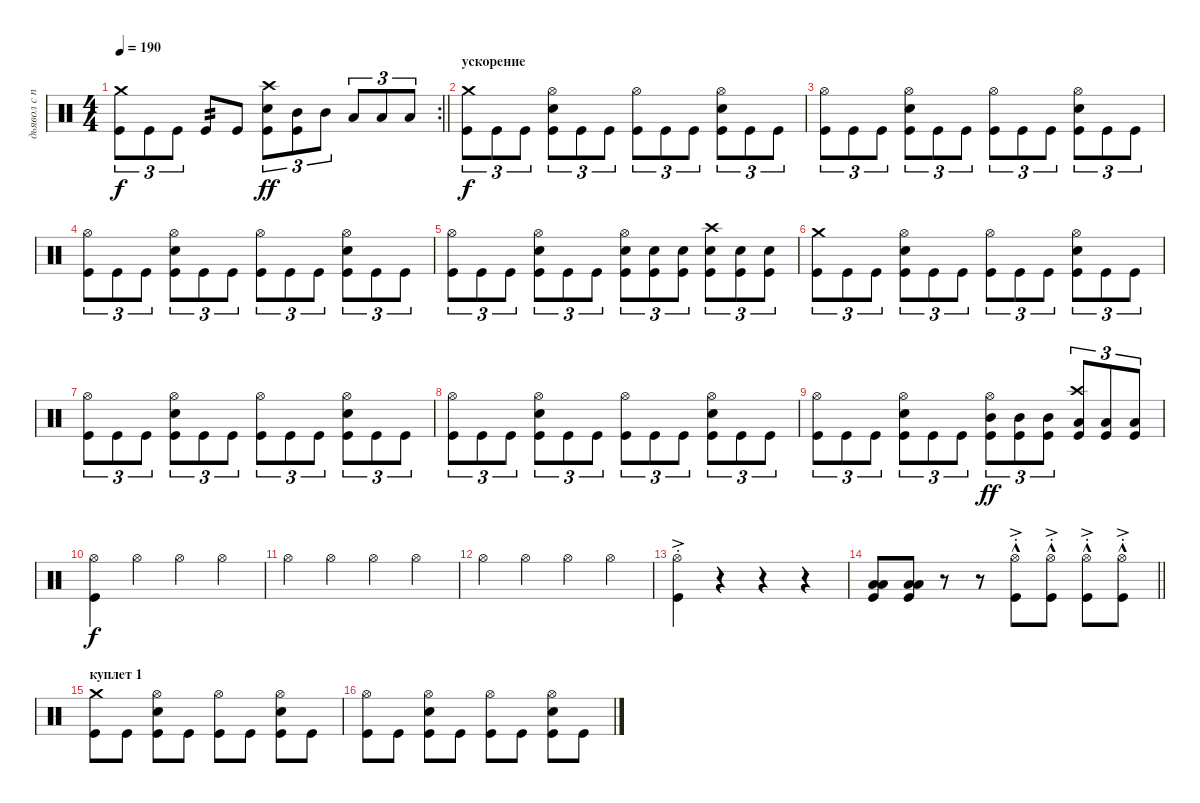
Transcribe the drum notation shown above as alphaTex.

\track ("дьявол с палками" "дьявол с п") {instrument percussion}
\staff {score}
\articulation defaults
\rc 2
\ts (4 4)
\tempo 190
\clef neutral
\barLineRight lightlight
\ks c
("Kick (hit)" "Crash medium (hit)").8{tu (3 2) dy f} "Kick (hit)".8{tu (3 2)} "Kick (hit)".8{tu (3 2)} "Kick (hit)".8{tp 2} "Kick (hit)".8 ("Kick (hit)" "Snare (hit) 2" "Crash high (hit)").8{tu (3 2) dy ff} ("Kick (hit)" "Mid Tom (hit)").8{tu (3 2)} "Mid Tom (hit)".8{tu (3 2)} "Low Tom (hit)".8{tu (3 2)} "Low Tom (hit)".8{tu (3 2)} "Low Tom (hit)".8{tu (3 2)} |
\section ("" "ускорение")
("Kick (hit)" "Crash medium (hit)").8{tu (3 2) dy f} "Kick (hit)".8{tu (3 2)} "Kick (hit)".8{tu (3 2)} ("Kick (hit)" "Snare (hit) 2" "Hi-Hat (open)").8{tu (3 2)} "Kick (hit)".8{tu (3 2)} "Kick (hit)".8{tu (3 2)} ("Kick (hit)" "Hi-Hat (open)").8{tu (3 2)} "Kick (hit)".8{tu (3 2)} "Kick (hit)".8{tu (3 2)} ("Kick (hit)" "Snare (hit) 2" "Hi-Hat (open)").8{tu (3 2)} "Kick (hit)".8{tu (3 2)} "Kick (hit)".8{tu (3 2)} |
("Kick (hit)" "Hi-Hat (open)").8{tu (3 2)} "Kick (hit)".8{tu (3 2)} "Kick (hit)".8{tu (3 2)} ("Kick (hit)" "Snare (hit) 2" "Hi-Hat (open)").8{tu (3 2)} "Kick (hit)".8{tu (3 2)} "Kick (hit)".8{tu (3 2)} ("Kick (hit)" "Hi-Hat (open)").8{tu (3 2)} "Kick (hit)".8{tu (3 2)} "Kick (hit)".8{tu (3 2)} ("Kick (hit)" "Snare (hit) 2" "Hi-Hat (open)").8{tu (3 2)} "Kick (hit)".8{tu (3 2)} "Kick (hit)".8{tu (3 2)} |
("Kick (hit)" "Hi-Hat (open)").8{tu (3 2)} "Kick (hit)".8{tu (3 2)} "Kick (hit)".8{tu (3 2)} ("Kick (hit)" "Snare (hit) 2" "Hi-Hat (open)").8{tu (3 2)} "Kick (hit)".8{tu (3 2)} "Kick (hit)".8{tu (3 2)} ("Kick (hit)" "Hi-Hat (open)").8{tu (3 2)} "Kick (hit)".8{tu (3 2)} "Kick (hit)".8{tu (3 2)} ("Kick (hit)" "Snare (hit) 2" "Hi-Hat (open)").8{tu (3 2)} "Kick (hit)".8{tu (3 2)} "Kick (hit)".8{tu (3 2)} |
("Kick (hit)" "Hi-Hat (open)").8{tu (3 2)} "Kick (hit)".8{tu (3 2)} "Kick (hit)".8{tu (3 2)} ("Kick (hit)" "Snare (hit) 2" "Hi-Hat (open)").8{tu (3 2)} "Kick (hit)".8{tu (3 2)} "Kick (hit)".8{tu (3 2)} ("Kick (hit)" "Hi-Hat (open)" "Snare (hit) 2").8{tu (3 2)} ("Kick (hit)" "Snare (hit) 2").8{tu (3 2)} ("Kick (hit)" "Snare (hit) 2").8{tu (3 2)} ("Kick (hit)" "Snare (hit) 2" "Crash high (hit)").8{tu (3 2)} ("Kick (hit)" "Snare (hit) 2").8{tu (3 2)} ("Kick (hit)" "Snare (hit) 2").8{tu (3 2)} |
("Kick (hit)" "Crash medium (hit)").8{tu (3 2)} "Kick (hit)".8{tu (3 2)} "Kick (hit)".8{tu (3 2)} ("Kick (hit)" "Snare (hit) 2" "Hi-Hat (open)").8{tu (3 2)} "Kick (hit)".8{tu (3 2)} "Kick (hit)".8{tu (3 2)} ("Kick (hit)" "Hi-Hat (open)").8{tu (3 2)} "Kick (hit)".8{tu (3 2)} "Kick (hit)".8{tu (3 2)} ("Kick (hit)" "Snare (hit) 2" "Hi-Hat (open)").8{tu (3 2)} "Kick (hit)".8{tu (3 2)} "Kick (hit)".8{tu (3 2)} |
("Kick (hit)" "Hi-Hat (open)").8{tu (3 2)} "Kick (hit)".8{tu (3 2)} "Kick (hit)".8{tu (3 2)} ("Kick (hit)" "Snare (hit) 2" "Hi-Hat (open)").8{tu (3 2)} "Kick (hit)".8{tu (3 2)} "Kick (hit)".8{tu (3 2)} ("Kick (hit)" "Hi-Hat (open)").8{tu (3 2)} "Kick (hit)".8{tu (3 2)} "Kick (hit)".8{tu (3 2)} ("Kick (hit)" "Snare (hit) 2" "Hi-Hat (open)").8{tu (3 2)} "Kick (hit)".8{tu (3 2)} "Kick (hit)".8{tu (3 2)} |
("Kick (hit)" "Hi-Hat (open)").8{tu (3 2)} "Kick (hit)".8{tu (3 2)} "Kick (hit)".8{tu (3 2)} ("Kick (hit)" "Snare (hit) 2" "Hi-Hat (open)").8{tu (3 2)} "Kick (hit)".8{tu (3 2)} "Kick (hit)".8{tu (3 2)} ("Kick (hit)" "Hi-Hat (open)").8{tu (3 2)} "Kick (hit)".8{tu (3 2)} "Kick (hit)".8{tu (3 2)} ("Kick (hit)" "Snare (hit) 2" "Hi-Hat (open)").8{tu (3 2)} "Kick (hit)".8{tu (3 2)} "Kick (hit)".8{tu (3 2)} |
("Kick (hit)" "Hi-Hat (open)").8{tu (3 2)} "Kick (hit)".8{tu (3 2)} "Kick (hit)".8{tu (3 2)} ("Kick (hit)" "Snare (hit) 2" "Hi-Hat (open)").8{tu (3 2)} "Kick (hit)".8{tu (3 2)} "Kick (hit)".8{tu (3 2)} ("Kick (hit)" "Hi-Hat (open)" "Mid Tom (hit)").8{tu (3 2) dy ff} ("Kick (hit)" "Mid Tom (hit)").8{tu (3 2)} ("Kick (hit)" "Mid Tom (hit)").8{tu (3 2)} ("Kick (hit)" "Crash high (hit)" "Low Tom (hit)").8{tu (3 2)} ("Kick (hit)" "Low Tom (hit)").8{tu (3 2)} ("Kick (hit)" "Low Tom (hit)").8{tu (3 2)} |
("Kick (hit)" "Hi-Hat (open)").4{dy f} "Hi-Hat (open)".4 "Hi-Hat (open)".4 "Hi-Hat (open)".4 |
"Hi-Hat (open)".4 "Hi-Hat (open)".4 "Hi-Hat (open)".4 "Hi-Hat (open)".4 |
"Hi-Hat (open)".4 "Hi-Hat (open)".4 "Hi-Hat (open)".4 "Hi-Hat (open)".4 |
("Hi-Hat (open)"{ac st} "Kick (hit)").4 r.4 r.4 r.4 |
\barLineRight lightlight
("Kick (hit)" "Low Floor Tom (hit)" "Low Tom (hit)").8 ("Kick (hit)" "Low Tom (hit)" "Low Floor Tom (hit)").8 r.8 r.8 ("Kick (hit)"{hac} "Hi-Hat (open)"{ac st}).8 ("Kick (hit)"{hac} "Hi-Hat (open)"{ac st}).8 ("Kick (hit)"{hac} "Hi-Hat (open)"{ac st}).8 ("Kick (hit)"{hac} "Hi-Hat (open)"{ac st}).8 |
\section ("" "куплет 1")
("Kick (hit)" "Crash medium (hit)").8 "Kick (hit)".8 ("Kick (hit)" "Snare (hit) 2" "Hi-Hat (open)").8 "Kick (hit)".8 ("Kick (hit)" "Hi-Hat (open)").8 "Kick (hit)".8 ("Kick (hit)" "Snare (hit) 2" "Hi-Hat (open)").8 "Kick (hit)".8 |
("Kick (hit)" "Hi-Hat (open)").8 "Kick (hit)".8 ("Kick (hit)" "Snare (hit) 2" "Hi-Hat (open)").8 "Kick (hit)".8 ("Kick (hit)" "Hi-Hat (open)").8 "Kick (hit)".8 ("Kick (hit)" "Snare (hit) 2" "Hi-Hat (open)").8 "Kick (hit)".8
